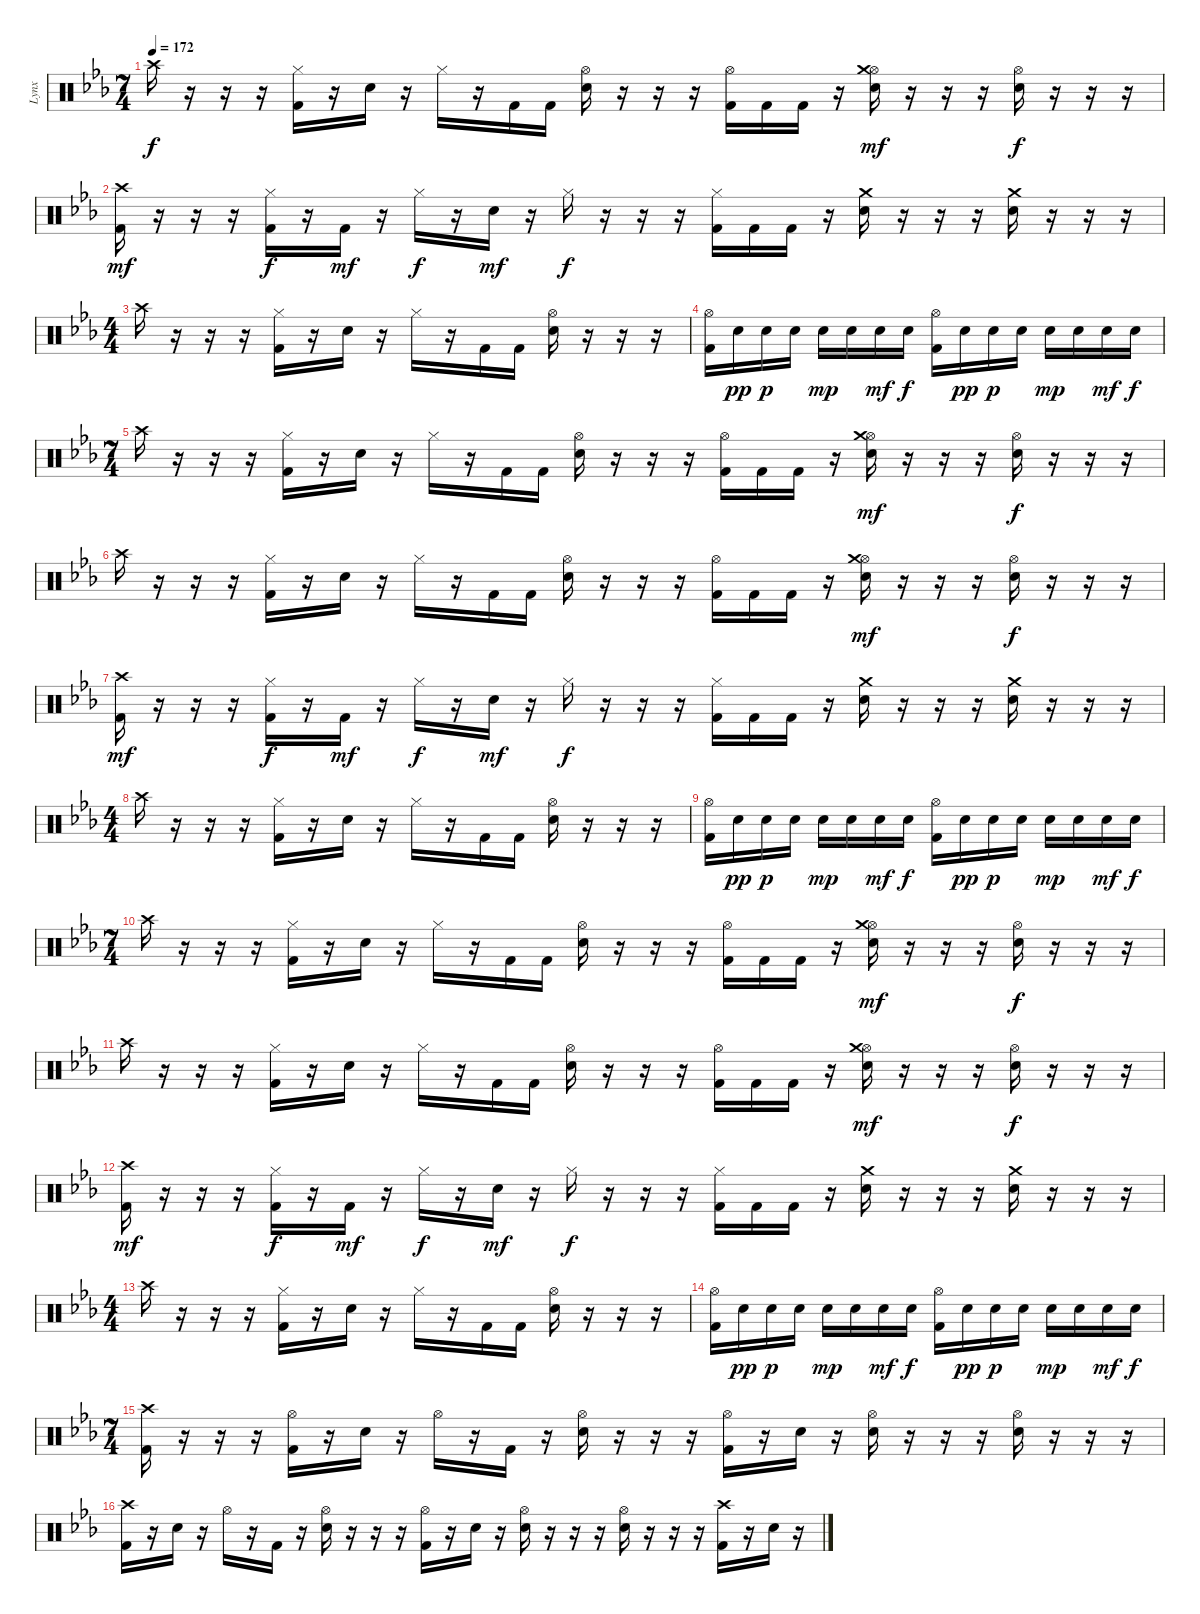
\track ("Lynx" "Lynx") {instrument percussion}
\staff {score}
\articulation defaults
\ts (7 4)
\tempo 172
\clef neutral
\ks eb "Crash high (hit)".16{dy f}
r.16 r.16 r.16 ("Hi-Hat (closed)" "Kick (hit) 2").16 r.16 "Electric Snare (hit)".16 r.16 "Hi-Hat (closed)".16 r.16 "Kick (hit) 2".16 "Kick (hit) 2".16 ("Hi-Hat (open)" "Electric Snare (hit)").16 r.16 r.16 r.16 ("Hi-Hat (open)" "Kick (hit) 2").16 "Kick (hit) 2".16 "Kick (hit) 2".16 r.16 ("Hi-Hat (open)" "Crash medium (hit)" "Electric Snare (hit)").16{dy mf} r.16 r.16 r.16 ("Hi-Hat (open)" "Electric Snare (hit)").16{dy f} r.16 r.16 r.16 |
("Crash high (hit)" "Kick (hit) 2").16{dy mf} r.16 r.16 r.16 ("Hi-Hat (closed)" "Kick (hit) 2").16{dy f} r.16 "Kick (hit) 2".16{dy mf} r.16 "Hi-Hat (closed)".16{dy f} r.16 "Electric Snare (hit)".16{dy mf} r.16 "Hi-Hat (closed)".16{dy f} r.16 r.16 r.16 ("Hi-Hat (closed)" "Kick (hit) 2").16 "Kick (hit) 2".16 "Kick (hit) 2".16 r.16 ("Crash medium (hit)" "Electric Snare (hit)").16 r.16 r.16 r.16 ("Crash medium (hit)" "Electric Snare (hit)").16 r.16 r.16 r.16 |
\ts (4 4)
"Crash high (hit)".16 r.16 r.16 r.16 ("Hi-Hat (closed)" "Kick (hit) 2").16 r.16 "Electric Snare (hit)".16 r.16 "Hi-Hat (closed)".16 r.16 "Kick (hit) 2".16 "Kick (hit) 2".16 ("Hi-Hat (open)" "Electric Snare (hit)").16 r.16 r.16 r.16 |
("Hi-Hat (open)" "Kick (hit) 2").16 "Electric Snare (hit)".16{dy pp} "Electric Snare (hit)".16{dy p} "Electric Snare (hit)".16 "Electric Snare (hit)".16{dy mp} "Electric Snare (hit)".16 "Electric Snare (hit)".16{dy mf} "Electric Snare (hit)".16{dy f} ("Hi-Hat (open)" "Kick (hit) 2").16 "Electric Snare (hit)".16{dy pp} "Electric Snare (hit)".16{dy p} "Electric Snare (hit)".16 "Electric Snare (hit)".16{dy mp} "Electric Snare (hit)".16 "Electric Snare (hit)".16{dy mf} "Electric Snare (hit)".16{dy f} |
\ts (7 4)
"Crash high (hit)".16 r.16 r.16 r.16 ("Hi-Hat (closed)" "Kick (hit) 2").16 r.16 "Electric Snare (hit)".16 r.16 "Hi-Hat (closed)".16 r.16 "Kick (hit) 2".16 "Kick (hit) 2".16 ("Hi-Hat (open)" "Electric Snare (hit)").16 r.16 r.16 r.16 ("Hi-Hat (open)" "Kick (hit) 2").16 "Kick (hit) 2".16 "Kick (hit) 2".16 r.16 ("Hi-Hat (open)" "Crash medium (hit)" "Electric Snare (hit)").16{dy mf} r.16 r.16 r.16 ("Hi-Hat (open)" "Electric Snare (hit)").16{dy f} r.16 r.16 r.16 |
"Crash high (hit)".16 r.16 r.16 r.16 ("Hi-Hat (closed)" "Kick (hit) 2").16 r.16 "Electric Snare (hit)".16 r.16 "Hi-Hat (closed)".16 r.16 "Kick (hit) 2".16 "Kick (hit) 2".16 ("Hi-Hat (open)" "Electric Snare (hit)").16 r.16 r.16 r.16 ("Hi-Hat (open)" "Kick (hit) 2").16 "Kick (hit) 2".16 "Kick (hit) 2".16 r.16 ("Hi-Hat (open)" "Crash medium (hit)" "Electric Snare (hit)").16{dy mf} r.16 r.16 r.16 ("Hi-Hat (open)" "Electric Snare (hit)").16{dy f} r.16 r.16 r.16 |
("Crash high (hit)" "Kick (hit) 2").16{dy mf} r.16 r.16 r.16 ("Hi-Hat (closed)" "Kick (hit) 2").16{dy f} r.16 "Kick (hit) 2".16{dy mf} r.16 "Hi-Hat (closed)".16{dy f} r.16 "Electric Snare (hit)".16{dy mf} r.16 "Hi-Hat (closed)".16{dy f} r.16 r.16 r.16 ("Hi-Hat (closed)" "Kick (hit) 2").16 "Kick (hit) 2".16 "Kick (hit) 2".16 r.16 ("Crash medium (hit)" "Electric Snare (hit)").16 r.16 r.16 r.16 ("Crash medium (hit)" "Electric Snare (hit)").16 r.16 r.16 r.16 |
\ts (4 4)
"Crash high (hit)".16 r.16 r.16 r.16 ("Hi-Hat (closed)" "Kick (hit) 2").16 r.16 "Electric Snare (hit)".16 r.16 "Hi-Hat (closed)".16 r.16 "Kick (hit) 2".16 "Kick (hit) 2".16 ("Hi-Hat (open)" "Electric Snare (hit)").16 r.16 r.16 r.16 |
("Hi-Hat (open)" "Kick (hit) 2").16 "Electric Snare (hit)".16{dy pp} "Electric Snare (hit)".16{dy p} "Electric Snare (hit)".16 "Electric Snare (hit)".16{dy mp} "Electric Snare (hit)".16 "Electric Snare (hit)".16{dy mf} "Electric Snare (hit)".16{dy f} ("Hi-Hat (open)" "Kick (hit) 2").16 "Electric Snare (hit)".16{dy pp} "Electric Snare (hit)".16{dy p} "Electric Snare (hit)".16 "Electric Snare (hit)".16{dy mp} "Electric Snare (hit)".16 "Electric Snare (hit)".16{dy mf} "Electric Snare (hit)".16{dy f} |
\ts (7 4)
"Crash high (hit)".16 r.16 r.16 r.16 ("Hi-Hat (closed)" "Kick (hit) 2").16 r.16 "Electric Snare (hit)".16 r.16 "Hi-Hat (closed)".16 r.16 "Kick (hit) 2".16 "Kick (hit) 2".16 ("Hi-Hat (open)" "Electric Snare (hit)").16 r.16 r.16 r.16 ("Hi-Hat (open)" "Kick (hit) 2").16 "Kick (hit) 2".16 "Kick (hit) 2".16 r.16 ("Hi-Hat (open)" "Crash medium (hit)" "Electric Snare (hit)").16{dy mf} r.16 r.16 r.16 ("Hi-Hat (open)" "Electric Snare (hit)").16{dy f} r.16 r.16 r.16 |
"Crash high (hit)".16 r.16 r.16 r.16 ("Hi-Hat (closed)" "Kick (hit) 2").16 r.16 "Electric Snare (hit)".16 r.16 "Hi-Hat (closed)".16 r.16 "Kick (hit) 2".16 "Kick (hit) 2".16 ("Hi-Hat (open)" "Electric Snare (hit)").16 r.16 r.16 r.16 ("Hi-Hat (open)" "Kick (hit) 2").16 "Kick (hit) 2".16 "Kick (hit) 2".16 r.16 ("Hi-Hat (open)" "Crash medium (hit)" "Electric Snare (hit)").16{dy mf} r.16 r.16 r.16 ("Hi-Hat (open)" "Electric Snare (hit)").16{dy f} r.16 r.16 r.16 |
("Crash high (hit)" "Kick (hit) 2").16{dy mf} r.16 r.16 r.16 ("Hi-Hat (closed)" "Kick (hit) 2").16{dy f} r.16 "Kick (hit) 2".16{dy mf} r.16 "Hi-Hat (closed)".16{dy f} r.16 "Electric Snare (hit)".16{dy mf} r.16 "Hi-Hat (closed)".16{dy f} r.16 r.16 r.16 ("Hi-Hat (closed)" "Kick (hit) 2").16 "Kick (hit) 2".16 "Kick (hit) 2".16 r.16 ("Crash medium (hit)" "Electric Snare (hit)").16 r.16 r.16 r.16 ("Crash medium (hit)" "Electric Snare (hit)").16 r.16 r.16 r.16 |
\ts (4 4)
"Crash high (hit)".16 r.16 r.16 r.16 ("Hi-Hat (closed)" "Kick (hit) 2").16 r.16 "Electric Snare (hit)".16 r.16 "Hi-Hat (closed)".16 r.16 "Kick (hit) 2".16 "Kick (hit) 2".16 ("Hi-Hat (open)" "Electric Snare (hit)").16 r.16 r.16 r.16 |
("Hi-Hat (open)" "Kick (hit) 2").16 "Electric Snare (hit)".16{dy pp} "Electric Snare (hit)".16{dy p} "Electric Snare (hit)".16 "Electric Snare (hit)".16{dy mp} "Electric Snare (hit)".16 "Electric Snare (hit)".16{dy mf} "Electric Snare (hit)".16{dy f} ("Hi-Hat (open)" "Kick (hit) 2").16 "Electric Snare (hit)".16{dy pp} "Electric Snare (hit)".16{dy p} "Electric Snare (hit)".16 "Electric Snare (hit)".16{dy mp} "Electric Snare (hit)".16 "Electric Snare (hit)".16{dy mf} "Electric Snare (hit)".16{dy f} |
\ts (7 4)
("Crash high (hit)" "Kick (hit) 2").16 r.16 r.16 r.16 ("Hi-Hat (open)" "Kick (hit) 2").16 r.16 "Electric Snare (hit)".16 r.16 "Hi-Hat (open)".16 r.16 "Kick (hit) 2".16 r.16 ("Hi-Hat (open)" "Electric Snare (hit)").16 r.16 r.16 r.16 ("Hi-Hat (open)" "Kick (hit) 2").16 r.16 "Electric Snare (hit)".16 r.16 ("Hi-Hat (open)" "Electric Snare (hit)").16 r.16 r.16 r.16 ("Hi-Hat (open)" "Electric Snare (hit)").16 r.16 r.16 r.16 |
("Crash high (hit)" "Kick (hit) 2").16 r.16 "Electric Snare (hit)".16 r.16 "Hi-Hat (open)".16 r.16 "Kick (hit) 2".16 r.16 ("Hi-Hat (open)" "Electric Snare (hit)").16 r.16 r.16 r.16 ("Hi-Hat (open)" "Kick (hit) 2").16 r.16 "Electric Snare (hit)".16 r.16 ("Hi-Hat (open)" "Electric Snare (hit)").16 r.16 r.16 r.16 ("Hi-Hat (open)" "Electric Snare (hit)").16 r.16 r.16 r.16 ("Crash high (hit)" "Kick (hit) 2").16 r.16 "Electric Snare (hit)".16 r.16
